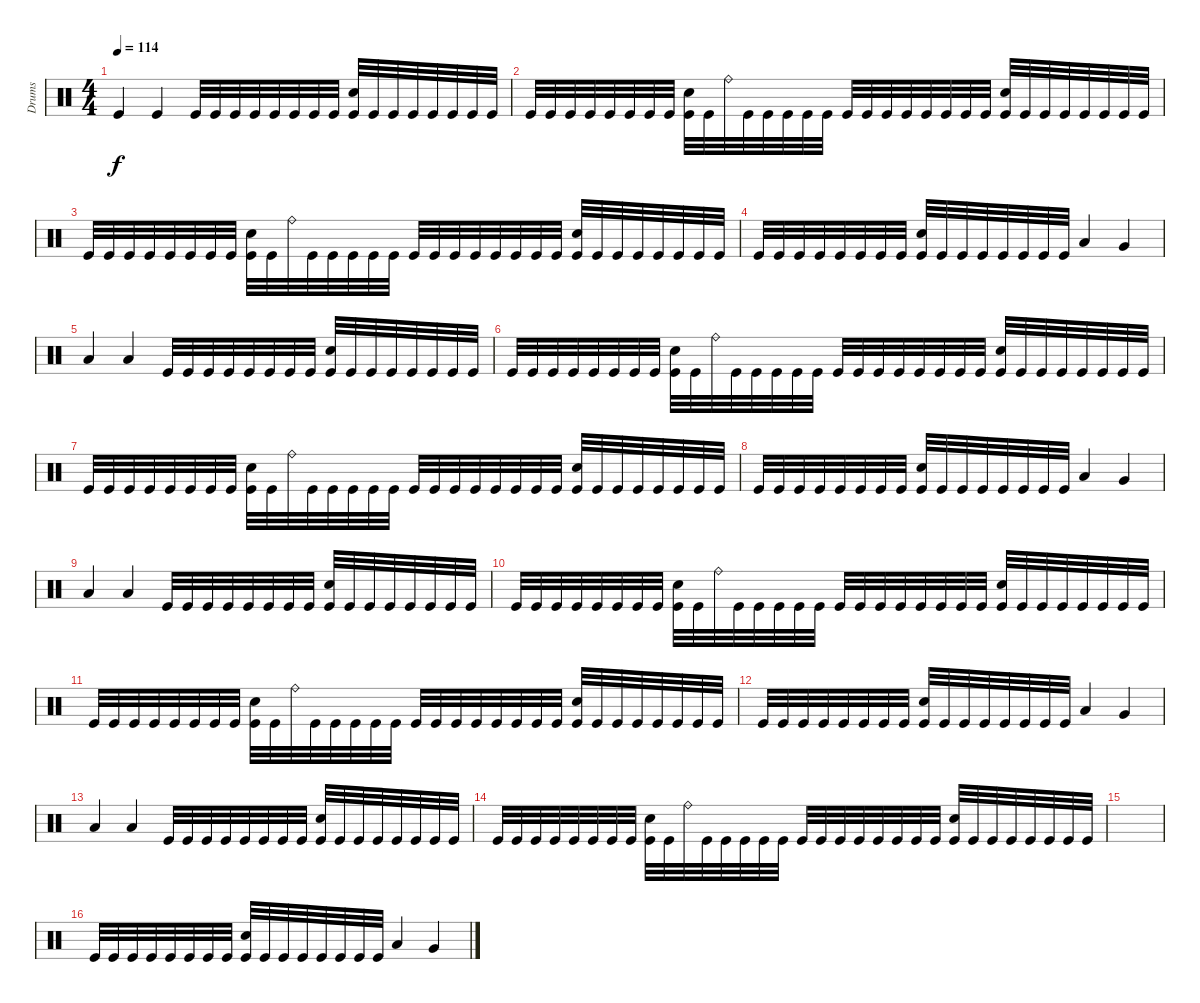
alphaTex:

\track ("Drums" "Drums") {instrument percussion}
\staff {score}
\articulation defaults
\ts (4 4)
\tempo 114
\clef neutral
\ks c "Kick (hit)".4{dy f} "Kick (hit)".4 "Kick (hit)".32 "Kick (hit)".32 "Kick (hit)".32 "Kick (hit)".32 "Kick (hit)".32 "Kick (hit)".32 "Kick (hit)".32 "Kick (hit)".32
("Snare (hit) 2" "Kick (hit)").32 "Kick (hit)".32 "Kick (hit)".32 "Kick (hit)".32 "Kick (hit)".32 "Kick (hit)".32 "Kick (hit)".32 "Kick (hit)".32 |
"Kick (hit)".32 "Kick (hit)".32 "Kick (hit)".32 "Kick (hit)".32 "Kick (hit)".32 "Kick (hit)".32 "Kick (hit)".32 "Kick (hit)".32 ("Snare (hit) 2" "Kick (hit)").32 "Kick (hit)".32 "Ride (bell)".32 "Kick (hit)".32 "Kick (hit)".32 "Kick (hit)".32 "Kick (hit)".32 "Kick (hit)".32 "Kick (hit)".32 "Kick (hit)".32 "Kick (hit)".32 "Kick (hit)".32 "Kick (hit)".32 "Kick (hit)".32 "Kick (hit)".32 "Kick (hit)".32 ("Snare (hit) 2" "Kick (hit)").32 "Kick (hit)".32 "Kick (hit)".32 "Kick (hit)".32 "Kick (hit)".32 "Kick (hit)".32 "Kick (hit)".32 "Kick (hit)".32 |
"Kick (hit)".32 "Kick (hit)".32 "Kick (hit)".32 "Kick (hit)".32 "Kick (hit)".32 "Kick (hit)".32 "Kick (hit)".32 "Kick (hit)".32 ("Snare (hit) 2" "Kick (hit)").32 "Kick (hit)".32 "Ride (bell)".32 "Kick (hit)".32 "Kick (hit)".32 "Kick (hit)".32 "Kick (hit)".32 "Kick (hit)".32 "Kick (hit)".32 "Kick (hit)".32 "Kick (hit)".32 "Kick (hit)".32 "Kick (hit)".32 "Kick (hit)".32 "Kick (hit)".32 "Kick (hit)".32 ("Snare (hit) 2" "Kick (hit)").32 "Kick (hit)".32 "Kick (hit)".32 "Kick (hit)".32 "Kick (hit)".32 "Kick (hit)".32 "Kick (hit)".32 "Kick (hit)".32 |
"Kick (hit)".32 "Kick (hit)".32 "Kick (hit)".32 "Kick (hit)".32 "Kick (hit)".32 "Kick (hit)".32 "Kick (hit)".32 "Kick (hit)".32 ("Snare (hit) 2" "Kick (hit)").32 "Kick (hit)".32 "Kick (hit)".32 "Kick (hit)".32 "Kick (hit)".32 "Kick (hit)".32 "Kick (hit)".32 "Kick (hit)".32 "Low Tom (hit)".4 "Very Low Tom (hit)".4 |
"Low Floor Tom (hit)".4 "Low Floor Tom (hit)".4 "Kick (hit)".32 "Kick (hit)".32 "Kick (hit)".32 "Kick (hit)".32 "Kick (hit)".32 "Kick (hit)".32 "Kick (hit)".32 "Kick (hit)".32 ("Snare (hit) 2" "Kick (hit)").32 "Kick (hit)".32 "Kick (hit)".32 "Kick (hit)".32 "Kick (hit)".32 "Kick (hit)".32 "Kick (hit)".32 "Kick (hit)".32 |
"Kick (hit)".32 "Kick (hit)".32 "Kick (hit)".32 "Kick (hit)".32 "Kick (hit)".32 "Kick (hit)".32 "Kick (hit)".32 "Kick (hit)".32 ("Snare (hit) 2" "Kick (hit)").32 "Kick (hit)".32 "Ride (bell)".32 "Kick (hit)".32 "Kick (hit)".32 "Kick (hit)".32 "Kick (hit)".32 "Kick (hit)".32 "Kick (hit)".32 "Kick (hit)".32 "Kick (hit)".32 "Kick (hit)".32 "Kick (hit)".32 "Kick (hit)".32 "Kick (hit)".32 "Kick (hit)".32 ("Snare (hit) 2" "Kick (hit)").32 "Kick (hit)".32 "Kick (hit)".32 "Kick (hit)".32 "Kick (hit)".32 "Kick (hit)".32 "Kick (hit)".32 "Kick (hit)".32 |
"Kick (hit)".32 "Kick (hit)".32 "Kick (hit)".32 "Kick (hit)".32 "Kick (hit)".32 "Kick (hit)".32 "Kick (hit)".32 "Kick (hit)".32 ("Snare (hit) 2" "Kick (hit)").32 "Kick (hit)".32 "Ride (bell)".32 "Kick (hit)".32 "Kick (hit)".32 "Kick (hit)".32 "Kick (hit)".32 "Kick (hit)".32 "Kick (hit)".32 "Kick (hit)".32 "Kick (hit)".32 "Kick (hit)".32 "Kick (hit)".32 "Kick (hit)".32 "Kick (hit)".32 "Kick (hit)".32 ("Snare (hit) 2" "Kick (hit)").32 "Kick (hit)".32 "Kick (hit)".32 "Kick (hit)".32 "Kick (hit)".32 "Kick (hit)".32 "Kick (hit)".32 "Kick (hit)".32 |
"Kick (hit)".32 "Kick (hit)".32 "Kick (hit)".32 "Kick (hit)".32 "Kick (hit)".32 "Kick (hit)".32 "Kick (hit)".32 "Kick (hit)".32 ("Snare (hit) 2" "Kick (hit)").32 "Kick (hit)".32 "Kick (hit)".32 "Kick (hit)".32 "Kick (hit)".32 "Kick (hit)".32 "Kick (hit)".32 "Kick (hit)".32 "Low Tom (hit)".4 "Very Low Tom (hit)".4 |
"Low Floor Tom (hit)".4 "Low Floor Tom (hit)".4 "Kick (hit)".32 "Kick (hit)".32 "Kick (hit)".32 "Kick (hit)".32 "Kick (hit)".32 "Kick (hit)".32 "Kick (hit)".32 "Kick (hit)".32 ("Snare (hit) 2" "Kick (hit)").32 "Kick (hit)".32 "Kick (hit)".32 "Kick (hit)".32 "Kick (hit)".32 "Kick (hit)".32 "Kick (hit)".32 "Kick (hit)".32 |
"Kick (hit)".32 "Kick (hit)".32 "Kick (hit)".32 "Kick (hit)".32 "Kick (hit)".32 "Kick (hit)".32 "Kick (hit)".32 "Kick (hit)".32 ("Snare (hit) 2" "Kick (hit)").32 "Kick (hit)".32 "Ride (bell)".32 "Kick (hit)".32 "Kick (hit)".32 "Kick (hit)".32 "Kick (hit)".32 "Kick (hit)".32 "Kick (hit)".32 "Kick (hit)".32 "Kick (hit)".32 "Kick (hit)".32 "Kick (hit)".32 "Kick (hit)".32 "Kick (hit)".32 "Kick (hit)".32 ("Snare (hit) 2" "Kick (hit)").32 "Kick (hit)".32 "Kick (hit)".32 "Kick (hit)".32 "Kick (hit)".32 "Kick (hit)".32 "Kick (hit)".32 "Kick (hit)".32 |
"Kick (hit)".32 "Kick (hit)".32 "Kick (hit)".32 "Kick (hit)".32 "Kick (hit)".32 "Kick (hit)".32 "Kick (hit)".32 "Kick (hit)".32 ("Snare (hit) 2" "Kick (hit)").32 "Kick (hit)".32 "Ride (bell)".32 "Kick (hit)".32 "Kick (hit)".32 "Kick (hit)".32 "Kick (hit)".32 "Kick (hit)".32 "Kick (hit)".32 "Kick (hit)".32 "Kick (hit)".32 "Kick (hit)".32 "Kick (hit)".32 "Kick (hit)".32 "Kick (hit)".32 "Kick (hit)".32 ("Snare (hit) 2" "Kick (hit)").32 "Kick (hit)".32 "Kick (hit)".32 "Kick (hit)".32 "Kick (hit)".32 "Kick (hit)".32 "Kick (hit)".32 "Kick (hit)".32 |
"Kick (hit)".32 "Kick (hit)".32 "Kick (hit)".32 "Kick (hit)".32 "Kick (hit)".32 "Kick (hit)".32 "Kick (hit)".32 "Kick (hit)".32 ("Snare (hit) 2" "Kick (hit)").32 "Kick (hit)".32 "Kick (hit)".32 "Kick (hit)".32 "Kick (hit)".32 "Kick (hit)".32 "Kick (hit)".32 "Kick (hit)".32 "Low Tom (hit)".4 "Very Low Tom (hit)".4 |
"Low Floor Tom (hit)".4 "Low Floor Tom (hit)".4 "Kick (hit)".32 "Kick (hit)".32 "Kick (hit)".32 "Kick (hit)".32 "Kick (hit)".32 "Kick (hit)".32 "Kick (hit)".32 "Kick (hit)".32 ("Snare (hit) 2" "Kick (hit)").32 "Kick (hit)".32 "Kick (hit)".32 "Kick (hit)".32 "Kick (hit)".32 "Kick (hit)".32 "Kick (hit)".32 "Kick (hit)".32 |
"Kick (hit)".32 "Kick (hit)".32 "Kick (hit)".32 "Kick (hit)".32 "Kick (hit)".32 "Kick (hit)".32 "Kick (hit)".32 "Kick (hit)".32 ("Snare (hit) 2" "Kick (hit)").32 "Kick (hit)".32 "Ride (bell)".32 "Kick (hit)".32 "Kick (hit)".32 "Kick (hit)".32 "Kick (hit)".32 "Kick (hit)".32 "Kick (hit)".32 "Kick (hit)".32 "Kick (hit)".32 "Kick (hit)".32 "Kick (hit)".32 "Kick (hit)".32 "Kick (hit)".32 "Kick (hit)".32 ("Snare (hit) 2" "Kick (hit)").32 "Kick (hit)".32 "Kick (hit)".32 "Kick (hit)".32 "Kick (hit)".32 "Kick (hit)".32 "Kick (hit)".32 "Kick (hit)".32 |
|
"Kick (hit)".32 "Kick (hit)".32 "Kick (hit)".32 "Kick (hit)".32 "Kick (hit)".32 "Kick (hit)".32 "Kick (hit)".32 "Kick (hit)".32 ("Snare (hit) 2" "Kick (hit)").32 "Kick (hit)".32 "Kick (hit)".32 "Kick (hit)".32 "Kick (hit)".32 "Kick (hit)".32 "Kick (hit)".32 "Kick (hit)".32 "Low Tom (hit)".4 "Very Low Tom (hit)".4
